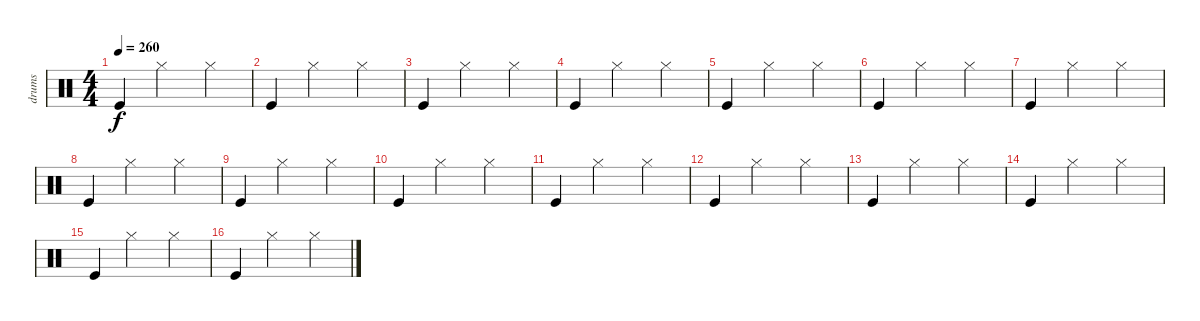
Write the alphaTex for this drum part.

\track ("drums" "drums") {instrument percussion}
\staff {score}
\articulation defaults
\ts (4 4)
\tempo 260
\clef neutral
\ks c "Kick (hit)".4{dy f} "Hi-Hat (closed)".2 "Hi-Hat (closed)".4
|
"Kick (hit)".4 "Hi-Hat (closed)".2 "Hi-Hat (closed)".4 |
"Kick (hit)".4 "Hi-Hat (closed)".2 "Hi-Hat (closed)".4 |
"Kick (hit)".4 "Hi-Hat (closed)".2 "Hi-Hat (closed)".4 |
"Kick (hit)".4 "Hi-Hat (closed)".2 "Hi-Hat (closed)".4 |
"Kick (hit)".4 "Hi-Hat (closed)".2 "Hi-Hat (closed)".4 |
"Kick (hit)".4 "Hi-Hat (closed)".2 "Hi-Hat (closed)".4 |
"Kick (hit)".4 "Hi-Hat (closed)".2 "Hi-Hat (closed)".4 |
"Kick (hit)".4 "Hi-Hat (closed)".2 "Hi-Hat (closed)".4 |
"Kick (hit)".4 "Hi-Hat (closed)".2 "Hi-Hat (closed)".4 |
"Kick (hit)".4 "Hi-Hat (closed)".2 "Hi-Hat (closed)".4 |
"Kick (hit)".4 "Hi-Hat (closed)".2 "Hi-Hat (closed)".4 |
"Kick (hit)".4 "Hi-Hat (closed)".2 "Hi-Hat (closed)".4 |
"Kick (hit)".4 "Hi-Hat (closed)".2 "Hi-Hat (closed)".4 |
"Kick (hit)".4 "Hi-Hat (closed)".2 "Hi-Hat (closed)".4 |
"Kick (hit)".4 "Hi-Hat (closed)".2 "Hi-Hat (closed)".4
